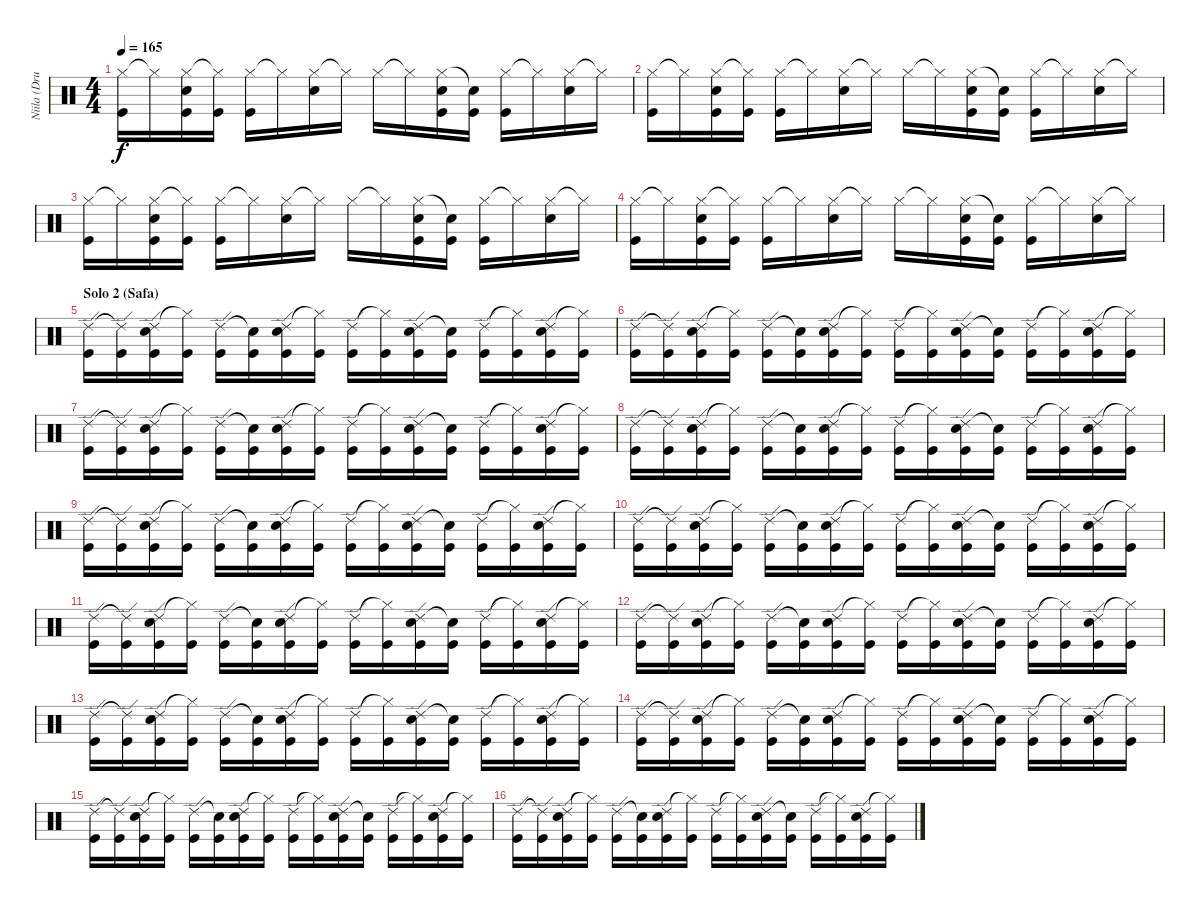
\track ("Niila (Drums)" "Niila (Dru") {instrument percussion}
\staff {score}
\articulation defaults
\ts (4 4)
\tempo 165
\clef neutral
\ks c
("Hi-Hat (closed)" "Kick (hit)").16{dy f} "Hi-Hat (closed)"{t}.16 ("Hi-Hat (closed)" "Snare (hit) 2" "Kick (hit)").16 ("Hi-Hat (closed)"{t} "Kick (hit)").16 ("Hi-Hat (closed)" "Kick (hit)").16 "Hi-Hat (closed)"{t}.16 ("Hi-Hat (closed)" "Snare (hit) 2").16 "Hi-Hat (closed)"{t}.16 "Hi-Hat (closed)".16 "Hi-Hat (closed)"{t}.16 ("Hi-Hat (closed)" "Snare (hit) 2" "Kick (hit)").16 ("Snare (hit)"{t} "Kick (hit)").16 ("Hi-Hat (closed)" "Kick (hit)").16 "Hi-Hat (closed)"{t}.16 ("Hi-Hat (closed)" "Snare (hit) 2").16 "Hi-Hat (closed)"{t}.16 |
("Hi-Hat (closed)" "Kick (hit)").16 "Hi-Hat (closed)"{t}.16 ("Hi-Hat (closed)" "Snare (hit) 2" "Kick (hit)").16 ("Hi-Hat (closed)"{t} "Kick (hit)").16 ("Hi-Hat (closed)" "Kick (hit)").16 "Hi-Hat (closed)"{t}.16 ("Hi-Hat (closed)" "Snare (hit) 2").16 "Hi-Hat (closed)"{t}.16 "Hi-Hat (closed)".16 "Hi-Hat (closed)"{t}.16 ("Hi-Hat (closed)" "Snare (hit) 2" "Kick (hit)").16 ("Snare (hit)"{t} "Kick (hit)").16 ("Hi-Hat (closed)" "Kick (hit)").16 "Hi-Hat (closed)"{t}.16 ("Hi-Hat (closed)" "Snare (hit) 2").16 "Hi-Hat (closed)"{t}.16 |
("Hi-Hat (closed)" "Kick (hit)").16 "Hi-Hat (closed)"{t}.16 ("Hi-Hat (closed)" "Snare (hit) 2" "Kick (hit)").16 ("Hi-Hat (closed)"{t} "Kick (hit)").16 ("Hi-Hat (closed)" "Kick (hit)").16 "Hi-Hat (closed)"{t}.16 ("Hi-Hat (closed)" "Snare (hit) 2").16 "Hi-Hat (closed)"{t}.16 "Hi-Hat (closed)".16 "Hi-Hat (closed)"{t}.16 ("Hi-Hat (closed)" "Snare (hit) 2" "Kick (hit)").16 ("Snare (hit)"{t} "Kick (hit)").16 ("Hi-Hat (closed)" "Kick (hit)").16 "Hi-Hat (closed)"{t}.16 ("Hi-Hat (closed)" "Snare (hit) 2").16 "Hi-Hat (closed)"{t}.16 |
("Hi-Hat (closed)" "Kick (hit)").16 "Hi-Hat (closed)"{t}.16 ("Hi-Hat (closed)" "Snare (hit) 2" "Kick (hit)").16 ("Hi-Hat (closed)"{t} "Kick (hit)").16 ("Hi-Hat (closed)" "Kick (hit)").16 "Hi-Hat (closed)"{t}.16 ("Hi-Hat (closed)" "Snare (hit) 2").16 "Hi-Hat (closed)"{t}.16 "Hi-Hat (closed)".16 "Hi-Hat (closed)"{t}.16 ("Hi-Hat (closed)" "Snare (hit) 2" "Kick (hit)").16 ("Snare (hit)"{t} "Kick (hit)").16 ("Hi-Hat (closed)" "Kick (hit)").16 "Hi-Hat (closed)"{t}.16 ("Hi-Hat (closed)" "Snare (hit) 2").16 "Hi-Hat (closed)"{t}.16 |
\section ("" "Solo 2 (Safa)")
("Ride (edge) 2" "Kick (hit)").16 ("Ride (edge) 2"{t} "Kick (hit)").16 ("Ride (edge) 2" "Snare (hit) 2" "Kick (hit)").16 ("Hi-Hat (closed)"{t} "Kick (hit)").16 ("Ride (edge) 2" "Kick (hit)").16 ("Snare (hit)"{t} "Kick (hit)").16 ("Ride (edge) 2" "Snare (hit) 2" "Kick (hit)").16 ("Hi-Hat (closed)"{t} "Kick (hit)").16 ("Ride (edge) 2" "Kick (hit)").16 ("Hi-Hat (closed)"{t} "Kick (hit)").16 ("Ride (edge) 2" "Snare (hit) 2" "Kick (hit)").16 ("Snare (hit)"{t} "Kick (hit)").16 ("Ride (edge) 2" "Kick (hit)").16 ("Hi-Hat (closed)"{t} "Kick (hit)").16 ("Ride (edge) 2" "Snare (hit) 2" "Kick (hit)").16 ("Hi-Hat (closed)"{t} "Kick (hit)").16 |
("Ride (edge) 2" "Kick (hit)").16 ("Ride (edge) 2"{t} "Kick (hit)").16 ("Ride (edge) 2" "Snare (hit) 2" "Kick (hit)").16 ("Hi-Hat (closed)"{t} "Kick (hit)").16 ("Ride (edge) 2" "Kick (hit)").16 ("Snare (hit)"{t} "Kick (hit)").16 ("Ride (edge) 2" "Snare (hit) 2" "Kick (hit)").16 ("Hi-Hat (closed)"{t} "Kick (hit)").16 ("Ride (edge) 2" "Kick (hit)").16 ("Hi-Hat (closed)"{t} "Kick (hit)").16 ("Ride (edge) 2" "Snare (hit) 2" "Kick (hit)").16 ("Snare (hit)"{t} "Kick (hit)").16 ("Ride (edge) 2" "Kick (hit)").16 ("Hi-Hat (closed)"{t} "Kick (hit)").16 ("Ride (edge) 2" "Snare (hit) 2" "Kick (hit)").16 ("Hi-Hat (closed)"{t} "Kick (hit)").16 |
("Ride (edge) 2" "Kick (hit)").16 ("Ride (edge) 2"{t} "Kick (hit)").16 ("Ride (edge) 2" "Snare (hit) 2" "Kick (hit)").16 ("Hi-Hat (closed)"{t} "Kick (hit)").16 ("Ride (edge) 2" "Kick (hit)").16 ("Snare (hit)"{t} "Kick (hit)").16 ("Ride (edge) 2" "Snare (hit) 2" "Kick (hit)").16 ("Hi-Hat (closed)"{t} "Kick (hit)").16 ("Ride (edge) 2" "Kick (hit)").16 ("Hi-Hat (closed)"{t} "Kick (hit)").16 ("Ride (edge) 2" "Snare (hit) 2" "Kick (hit)").16 ("Snare (hit)"{t} "Kick (hit)").16 ("Ride (edge) 2" "Kick (hit)").16 ("Hi-Hat (closed)"{t} "Kick (hit)").16 ("Ride (edge) 2" "Snare (hit) 2" "Kick (hit)").16 ("Hi-Hat (closed)"{t} "Kick (hit)").16 |
("Ride (edge) 2" "Kick (hit)").16 ("Ride (edge) 2"{t} "Kick (hit)").16 ("Ride (edge) 2" "Snare (hit) 2" "Kick (hit)").16 ("Hi-Hat (closed)"{t} "Kick (hit)").16 ("Ride (edge) 2" "Kick (hit)").16 ("Snare (hit)"{t} "Kick (hit)").16 ("Ride (edge) 2" "Snare (hit) 2" "Kick (hit)").16 ("Hi-Hat (closed)"{t} "Kick (hit)").16 ("Ride (edge) 2" "Kick (hit)").16 ("Hi-Hat (closed)"{t} "Kick (hit)").16 ("Ride (edge) 2" "Snare (hit) 2" "Kick (hit)").16 ("Snare (hit)"{t} "Kick (hit)").16 ("Ride (edge) 2" "Kick (hit)").16 ("Hi-Hat (closed)"{t} "Kick (hit)").16 ("Ride (edge) 2" "Snare (hit) 2" "Kick (hit)").16 ("Hi-Hat (closed)"{t} "Kick (hit)").16 |
("Ride (edge) 2" "Kick (hit)").16 ("Ride (edge) 2"{t} "Kick (hit)").16 ("Ride (edge) 2" "Snare (hit) 2" "Kick (hit)").16 ("Hi-Hat (closed)"{t} "Kick (hit)").16 ("Ride (edge) 2" "Kick (hit)").16 ("Snare (hit)"{t} "Kick (hit)").16 ("Ride (edge) 2" "Snare (hit) 2" "Kick (hit)").16 ("Hi-Hat (closed)"{t} "Kick (hit)").16 ("Ride (edge) 2" "Kick (hit)").16 ("Hi-Hat (closed)"{t} "Kick (hit)").16 ("Ride (edge) 2" "Snare (hit) 2" "Kick (hit)").16 ("Snare (hit)"{t} "Kick (hit)").16 ("Ride (edge) 2" "Kick (hit)").16 ("Hi-Hat (closed)"{t} "Kick (hit)").16 ("Ride (edge) 2" "Snare (hit) 2" "Kick (hit)").16 ("Hi-Hat (closed)"{t} "Kick (hit)").16 |
("Ride (edge) 2" "Kick (hit)").16 ("Ride (edge) 2"{t} "Kick (hit)").16 ("Ride (edge) 2" "Snare (hit) 2" "Kick (hit)").16 ("Hi-Hat (closed)"{t} "Kick (hit)").16 ("Ride (edge) 2" "Kick (hit)").16 ("Snare (hit)"{t} "Kick (hit)").16 ("Ride (edge) 2" "Snare (hit) 2" "Kick (hit)").16 ("Hi-Hat (closed)"{t} "Kick (hit)").16 ("Ride (edge) 2" "Kick (hit)").16 ("Hi-Hat (closed)"{t} "Kick (hit)").16 ("Ride (edge) 2" "Snare (hit) 2" "Kick (hit)").16 ("Snare (hit)"{t} "Kick (hit)").16 ("Ride (edge) 2" "Kick (hit)").16 ("Hi-Hat (closed)"{t} "Kick (hit)").16 ("Ride (edge) 2" "Snare (hit) 2" "Kick (hit)").16 ("Hi-Hat (closed)"{t} "Kick (hit)").16 |
("Ride (edge) 2" "Kick (hit)").16 ("Ride (edge) 2"{t} "Kick (hit)").16 ("Ride (edge) 2" "Snare (hit) 2" "Kick (hit)").16 ("Hi-Hat (closed)"{t} "Kick (hit)").16 ("Ride (edge) 2" "Kick (hit)").16 ("Snare (hit)"{t} "Kick (hit)").16 ("Ride (edge) 2" "Snare (hit) 2" "Kick (hit)").16 ("Hi-Hat (closed)"{t} "Kick (hit)").16 ("Ride (edge) 2" "Kick (hit)").16 ("Hi-Hat (closed)"{t} "Kick (hit)").16 ("Ride (edge) 2" "Snare (hit) 2" "Kick (hit)").16 ("Snare (hit)"{t} "Kick (hit)").16 ("Ride (edge) 2" "Kick (hit)").16 ("Hi-Hat (closed)"{t} "Kick (hit)").16 ("Ride (edge) 2" "Snare (hit) 2" "Kick (hit)").16 ("Hi-Hat (closed)"{t} "Kick (hit)").16 |
("Ride (edge) 2" "Kick (hit)").16 ("Ride (edge) 2"{t} "Kick (hit)").16 ("Ride (edge) 2" "Snare (hit) 2" "Kick (hit)").16 ("Hi-Hat (closed)"{t} "Kick (hit)").16 ("Ride (edge) 2" "Kick (hit)").16 ("Snare (hit)"{t} "Kick (hit)").16 ("Ride (edge) 2" "Snare (hit) 2" "Kick (hit)").16 ("Hi-Hat (closed)"{t} "Kick (hit)").16 ("Ride (edge) 2" "Kick (hit)").16 ("Hi-Hat (closed)"{t} "Kick (hit)").16 ("Ride (edge) 2" "Snare (hit) 2" "Kick (hit)").16 ("Snare (hit)"{t} "Kick (hit)").16 ("Ride (edge) 2" "Kick (hit)").16 ("Hi-Hat (closed)"{t} "Kick (hit)").16 ("Ride (edge) 2" "Snare (hit) 2" "Kick (hit)").16 ("Hi-Hat (closed)"{t} "Kick (hit)").16 |
("Ride (edge) 2" "Kick (hit)").16 ("Ride (edge) 2"{t} "Kick (hit)").16 ("Ride (edge) 2" "Snare (hit) 2" "Kick (hit)").16 ("Hi-Hat (closed)"{t} "Kick (hit)").16 ("Ride (edge) 2" "Kick (hit)").16 ("Snare (hit)"{t} "Kick (hit)").16 ("Ride (edge) 2" "Snare (hit) 2" "Kick (hit)").16 ("Hi-Hat (closed)"{t} "Kick (hit)").16 ("Ride (edge) 2" "Kick (hit)").16 ("Hi-Hat (closed)"{t} "Kick (hit)").16 ("Ride (edge) 2" "Snare (hit) 2" "Kick (hit)").16 ("Snare (hit)"{t} "Kick (hit)").16 ("Ride (edge) 2" "Kick (hit)").16 ("Hi-Hat (closed)"{t} "Kick (hit)").16 ("Ride (edge) 2" "Snare (hit) 2" "Kick (hit)").16 ("Hi-Hat (closed)"{t} "Kick (hit)").16 |
("Ride (edge) 2" "Kick (hit)").16 ("Ride (edge) 2"{t} "Kick (hit)").16 ("Ride (edge) 2" "Snare (hit) 2" "Kick (hit)").16 ("Hi-Hat (closed)"{t} "Kick (hit)").16 ("Ride (edge) 2" "Kick (hit)").16 ("Snare (hit)"{t} "Kick (hit)").16 ("Ride (edge) 2" "Snare (hit) 2" "Kick (hit)").16 ("Hi-Hat (closed)"{t} "Kick (hit)").16 ("Ride (edge) 2" "Kick (hit)").16 ("Hi-Hat (closed)"{t} "Kick (hit)").16 ("Ride (edge) 2" "Snare (hit) 2" "Kick (hit)").16 ("Snare (hit)"{t} "Kick (hit)").16 ("Ride (edge) 2" "Kick (hit)").16 ("Hi-Hat (closed)"{t} "Kick (hit)").16 ("Ride (edge) 2" "Snare (hit) 2" "Kick (hit)").16 ("Hi-Hat (closed)"{t} "Kick (hit)").16 |
("Ride (edge) 2" "Kick (hit)").16 ("Ride (edge) 2"{t} "Kick (hit)").16 ("Ride (edge) 2" "Snare (hit) 2" "Kick (hit)").16 ("Hi-Hat (closed)"{t} "Kick (hit)").16 ("Ride (edge) 2" "Kick (hit)").16 ("Snare (hit)"{t} "Kick (hit)").16 ("Ride (edge) 2" "Snare (hit) 2" "Kick (hit)").16 ("Hi-Hat (closed)"{t} "Kick (hit)").16 ("Ride (edge) 2" "Kick (hit)").16 ("Hi-Hat (closed)"{t} "Kick (hit)").16 ("Ride (edge) 2" "Snare (hit) 2" "Kick (hit)").16 ("Snare (hit)"{t} "Kick (hit)").16 ("Ride (edge) 2" "Kick (hit)").16 ("Hi-Hat (closed)"{t} "Kick (hit)").16 ("Ride (edge) 2" "Snare (hit) 2" "Kick (hit)").16 ("Hi-Hat (closed)"{t} "Kick (hit)").16 |
("Ride (edge) 2" "Kick (hit)").16 ("Ride (edge) 2"{t} "Kick (hit)").16 ("Ride (edge) 2" "Snare (hit) 2" "Kick (hit)").16 ("Hi-Hat (closed)"{t} "Kick (hit)").16 ("Ride (edge) 2" "Kick (hit)").16 ("Snare (hit)"{t} "Kick (hit)").16 ("Ride (edge) 2" "Snare (hit) 2" "Kick (hit)").16 ("Hi-Hat (closed)"{t} "Kick (hit)").16 ("Ride (edge) 2" "Kick (hit)").16 ("Hi-Hat (closed)"{t} "Kick (hit)").16 ("Ride (edge) 2" "Snare (hit) 2" "Kick (hit)").16 ("Snare (hit)"{t} "Kick (hit)").16 ("Ride (edge) 2" "Kick (hit)").16 ("Hi-Hat (closed)"{t} "Kick (hit)").16 ("Ride (edge) 2" "Snare (hit) 2" "Kick (hit)").16 ("Hi-Hat (closed)"{t} "Kick (hit)").16
